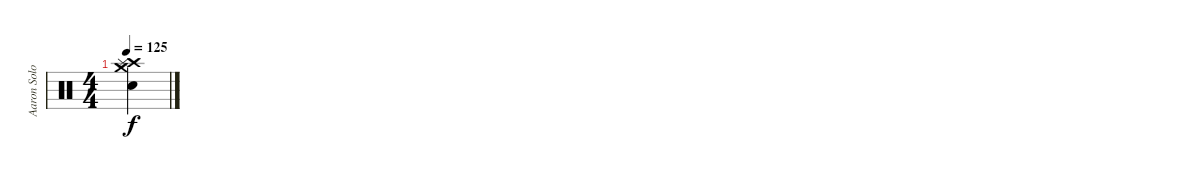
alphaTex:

\track ("Aaron Solowoniuk" "Aaron Solo") {instrument percussion}
\staff {score}
\articulation defaults
\ts (4 4)
\tempo 125
\clef neutral
\ks c
("Crash medium (hit)" "Crash high (hit)" "Splash (hit)" "Electric Snare (hit)").4{dy f}
